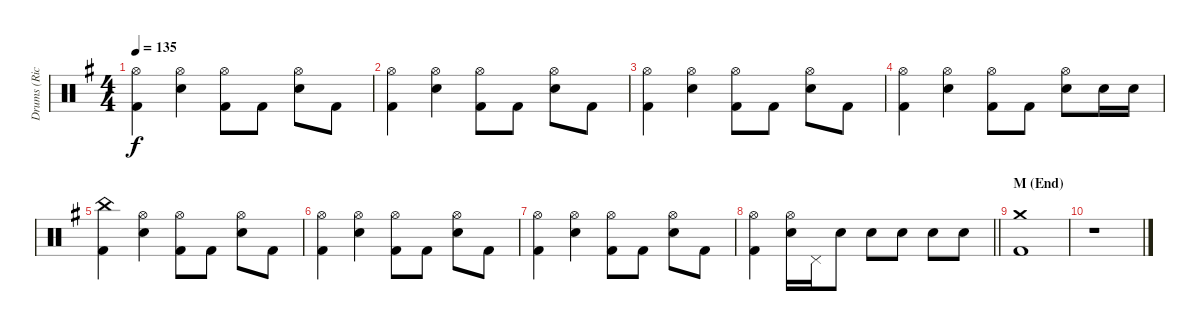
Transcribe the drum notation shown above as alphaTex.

\track ("Drums (Richard Evensand)" "Drums (Ric") {instrument percussion}
\staff {score}
\articulation defaults
\ts (4 4)
\tempo 135
\clef neutral
\ks eminor
("Hi-Hat (open)" "Kick (hit) 2").4{dy f} ("Hi-Hat (open)" "Electric Snare (hit)").4 ("Hi-Hat (open)" "Kick (hit) 2").8 "Kick (hit) 2".8 ("Hi-Hat (open)" "Electric Snare (hit)").8 "Kick (hit) 2".8 |
("Hi-Hat (open)" "Kick (hit) 2").4 ("Hi-Hat (open)" "Electric Snare (hit)").4 ("Hi-Hat (open)" "Kick (hit) 2").8 "Kick (hit) 2".8 ("Hi-Hat (open)" "Electric Snare (hit)").8 "Kick (hit) 2".8 |
("Hi-Hat (open)" "Kick (hit) 2").4 ("Hi-Hat (open)" "Electric Snare (hit)").4 ("Hi-Hat (open)" "Kick (hit) 2").8 "Kick (hit) 2".8 ("Hi-Hat (open)" "Electric Snare (hit)").8 "Kick (hit) 2".8 |
("Hi-Hat (open)" "Kick (hit) 2").4 ("Hi-Hat (open)" "Electric Snare (hit)").4 ("Hi-Hat (open)" "Kick (hit) 2").8 "Kick (hit) 2".8 ("Hi-Hat (open)" "Electric Snare (hit)").8 "Electric Snare (hit)".16 "Electric Snare (hit)".16 |
("China (hit)" "Kick (hit) 2").4 ("Hi-Hat (open)" "Electric Snare (hit)").4 ("Hi-Hat (open)" "Kick (hit) 2").8 "Kick (hit) 2".8 ("Hi-Hat (open)" "Electric Snare (hit)").8 "Kick (hit) 2".8 |
("Hi-Hat (open)" "Kick (hit) 2").4 ("Hi-Hat (open)" "Electric Snare (hit)").4 ("Hi-Hat (open)" "Kick (hit) 2").8 "Kick (hit) 2".8 ("Hi-Hat (open)" "Electric Snare (hit)").8 "Kick (hit) 2".8 |
("Hi-Hat (open)" "Kick (hit) 2").4 ("Hi-Hat (open)" "Electric Snare (hit)").4 ("Hi-Hat (open)" "Kick (hit) 2").8 "Kick (hit) 2".8 ("Hi-Hat (open)" "Electric Snare (hit)").8 "Kick (hit) 2".8 |
\barLineRight lightlight
("Hi-Hat (open)" "Kick (hit) 2").4 ("Hi-Hat (open)" "Electric Snare (hit)").16 "Pedal Hi-Hat (hit)".16 "Electric Snare (hit)".8 "Electric Snare (hit)".8 "Electric Snare (hit)".8 "Electric Snare (hit)".8 "Electric Snare (hit)".8 |
\section ("" "M (End)")
("Crash medium (hit)" "Kick (hit) 2").1 |
r.1
